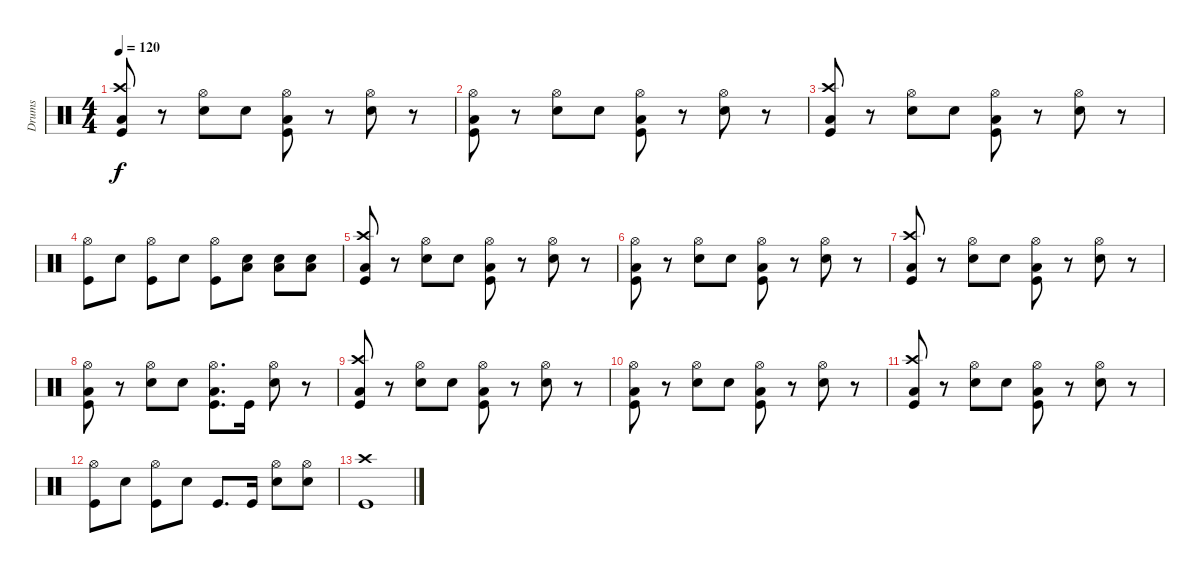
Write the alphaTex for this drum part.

\track ("Drums" "Drums") {instrument percussion}
\staff {score}
\articulation defaults
\ts (4 4)
\tempo 120
\clef neutral
\ks c
("Kick (hit)" "Crash high (hit)" "Low Floor Tom (hit)").8{dy f} r.8 ("Snare (hit) 2" "Hi-Hat (open)").8 "Snare (hit) 2".8 ("Kick (hit)" "Hi-Hat (open)" "Low Floor Tom (hit)").8 r.8 ("Snare (hit) 2" "Hi-Hat (open)").8 r.8 |
("Kick (hit)" "Hi-Hat (open)" "Low Floor Tom (hit)").8 r.8 ("Snare (hit) 2" "Hi-Hat (open)").8 "Snare (hit) 2".8 ("Kick (hit)" "Hi-Hat (open)" "Low Floor Tom (hit)").8 r.8 ("Snare (hit) 2" "Hi-Hat (open)").8 r.8 |
("Kick (hit)" "Crash high (hit)" "Low Floor Tom (hit)").8 r.8 ("Snare (hit) 2" "Hi-Hat (open)").8 "Snare (hit) 2".8 ("Kick (hit)" "Hi-Hat (open)" "Low Floor Tom (hit)").8 r.8 ("Snare (hit) 2" "Hi-Hat (open)").8 r.8 |
("Kick (hit)" "Hi-Hat (open)").8 "Snare (hit) 2".8 ("Kick (hit)" "Hi-Hat (open)").8 "Snare (hit) 2".8 ("Kick (hit)" "Hi-Hat (open)").8 ("Snare (hit) 2" "Low Floor Tom (hit)").8 ("Snare (hit) 2" "Low Floor Tom (hit)").8 ("Snare (hit) 2" "Low Floor Tom (hit)").8 |
("Kick (hit)" "Crash high (hit)" "Low Floor Tom (hit)").8 r.8 ("Snare (hit) 2" "Hi-Hat (open)").8 "Snare (hit) 2".8 ("Kick (hit)" "Hi-Hat (open)" "Low Floor Tom (hit)").8 r.8 ("Snare (hit) 2" "Hi-Hat (open)").8 r.8 |
("Kick (hit)" "Hi-Hat (open)" "Low Floor Tom (hit)").8 r.8 ("Snare (hit) 2" "Hi-Hat (open)").8 "Snare (hit) 2".8 ("Kick (hit)" "Hi-Hat (open)" "Low Floor Tom (hit)").8 r.8 ("Snare (hit) 2" "Hi-Hat (open)").8 r.8 |
("Kick (hit)" "Crash high (hit)" "Low Floor Tom (hit)").8 r.8 ("Snare (hit) 2" "Hi-Hat (open)").8 "Snare (hit) 2".8 ("Kick (hit)" "Hi-Hat (open)" "Low Floor Tom (hit)").8 r.8 ("Snare (hit) 2" "Hi-Hat (open)").8 r.8 |
("Kick (hit)" "Hi-Hat (open)" "Low Floor Tom (hit)").8 r.8 ("Snare (hit) 2" "Hi-Hat (open)").8 "Snare (hit) 2".8 ("Kick (hit)" "Hi-Hat (open)" "Low Floor Tom (hit)").8{d} "Kick (hit)".16 ("Snare (hit) 2" "Hi-Hat (open)").8 r.8 |
("Kick (hit)" "Crash high (hit)" "Low Floor Tom (hit)").8 r.8 ("Snare (hit) 2" "Hi-Hat (open)").8 "Snare (hit) 2".8 ("Kick (hit)" "Hi-Hat (open)" "Low Floor Tom (hit)").8 r.8 ("Snare (hit) 2" "Hi-Hat (open)").8 r.8 |
("Kick (hit)" "Hi-Hat (open)" "Low Floor Tom (hit)").8 r.8 ("Snare (hit) 2" "Hi-Hat (open)").8 "Snare (hit) 2".8 ("Kick (hit)" "Hi-Hat (open)" "Low Floor Tom (hit)").8 r.8 ("Snare (hit) 2" "Hi-Hat (open)").8 r.8 |
("Kick (hit)" "Crash high (hit)" "Low Floor Tom (hit)").8 r.8 ("Snare (hit) 2" "Hi-Hat (open)").8 "Snare (hit) 2".8 ("Kick (hit)" "Hi-Hat (open)" "Low Floor Tom (hit)").8 r.8 ("Snare (hit) 2" "Hi-Hat (open)").8 r.8 |
("Kick (hit)" "Hi-Hat (open)").8 "Snare (hit) 2".8 ("Kick (hit)" "Hi-Hat (open)").8 "Snare (hit) 2".8 "Kick (hit)".8{d} "Kick (hit)".16 ("Snare (hit) 2" "Hi-Hat (open)").8 ("Snare (hit) 2" "Hi-Hat (open)").8 |
("Kick (hit)" "Crash high (hit)").1
